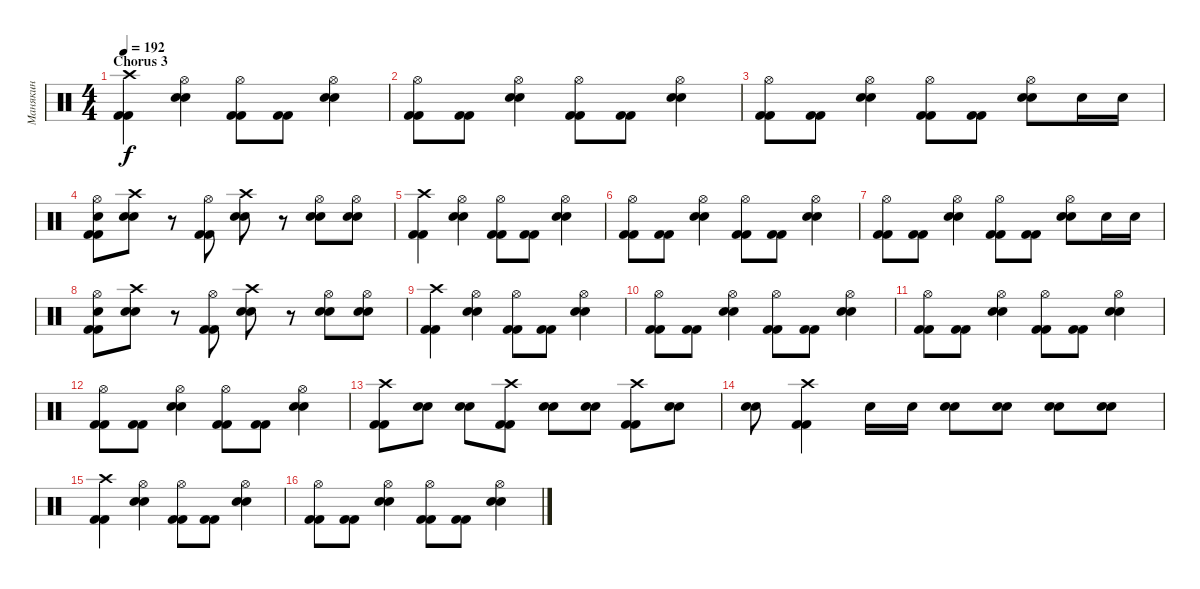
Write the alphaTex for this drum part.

\track ("Манякин" "Манякин") {instrument percussion}
\staff {score}
\articulation defaults
\ts (4 4)
\section ("" "Chorus 3")
\tempo 192
\clef neutral
\ks c
("Crash high (hit)" "Kick (hit) 2" "Kick (hit) 2").4{dy f} ("Hi-Hat (open)" "Electric Snare (hit)" "Electric Snare (hit)").4 ("Hi-Hat (open)" "Kick (hit) 2" "Kick (hit) 2").8 ("Kick (hit) 2" "Kick (hit) 2").8 ("Hi-Hat (open)" "Electric Snare (hit)" "Electric Snare (hit)").4 |
("Hi-Hat (open)" "Kick (hit) 2" "Kick (hit) 2").8 ("Kick (hit) 2" "Kick (hit) 2").8 ("Hi-Hat (open)" "Electric Snare (hit)" "Electric Snare (hit)").4 ("Hi-Hat (open)" "Kick (hit) 2" "Kick (hit) 2").8 ("Kick (hit) 2" "Kick (hit) 2").8 ("Hi-Hat (open)" "Electric Snare (hit)" "Electric Snare (hit)").4 |
("Hi-Hat (open)" "Kick (hit) 2" "Kick (hit) 2").8 ("Kick (hit) 2" "Kick (hit) 2").8 ("Hi-Hat (open)" "Electric Snare (hit)" "Electric Snare (hit)").4 ("Hi-Hat (open)" "Kick (hit) 2" "Kick (hit) 2").8 ("Kick (hit) 2" "Kick (hit) 2").8 ("Hi-Hat (open)" "Electric Snare (hit)" "Electric Snare (hit)").8 "Electric Snare (hit)".16 "Electric Snare (hit)".16 |
("Hi-Hat (open)" "Electric Snare (hit)" "Kick (hit) 2" "Kick (hit) 2").8 ("Crash high (hit)" "Electric Snare (hit)" "Electric Snare (hit)").8 r.8 ("Hi-Hat (open)" "Kick (hit) 2" "Kick (hit) 2").8 ("Crash high (hit)" "Electric Snare (hit)" "Electric Snare (hit)").8 r.8 ("Hi-Hat (open)" "Electric Snare (hit)" "Electric Snare (hit)").8 ("Hi-Hat (open)" "Electric Snare (hit)" "Electric Snare (hit)").8 |
("Crash high (hit)" "Kick (hit) 2" "Kick (hit) 2").4 ("Hi-Hat (open)" "Electric Snare (hit)" "Electric Snare (hit)").4 ("Hi-Hat (open)" "Kick (hit) 2" "Kick (hit) 2").8 ("Kick (hit) 2" "Kick (hit) 2").8 ("Hi-Hat (open)" "Electric Snare (hit)" "Electric Snare (hit)").4 |
("Hi-Hat (open)" "Kick (hit) 2" "Kick (hit) 2").8 ("Kick (hit) 2" "Kick (hit) 2").8 ("Hi-Hat (open)" "Electric Snare (hit)" "Electric Snare (hit)").4 ("Hi-Hat (open)" "Kick (hit) 2" "Kick (hit) 2").8 ("Kick (hit) 2" "Kick (hit) 2").8 ("Hi-Hat (open)" "Electric Snare (hit)" "Electric Snare (hit)").4 |
("Hi-Hat (open)" "Kick (hit) 2" "Kick (hit) 2").8 ("Kick (hit) 2" "Kick (hit) 2").8 ("Hi-Hat (open)" "Electric Snare (hit)" "Electric Snare (hit)").4 ("Hi-Hat (open)" "Kick (hit) 2" "Kick (hit) 2").8 ("Kick (hit) 2" "Kick (hit) 2").8 ("Hi-Hat (open)" "Electric Snare (hit)" "Electric Snare (hit)").8 "Electric Snare (hit)".16 "Electric Snare (hit)".16 |
("Hi-Hat (open)" "Electric Snare (hit)" "Kick (hit) 2" "Kick (hit) 2").8 ("Crash high (hit)" "Electric Snare (hit)" "Electric Snare (hit)").8 r.8 ("Hi-Hat (open)" "Kick (hit) 2" "Kick (hit) 2").8 ("Crash high (hit)" "Electric Snare (hit)" "Electric Snare (hit)").8 r.8 ("Hi-Hat (open)" "Electric Snare (hit)" "Electric Snare (hit)").8 ("Hi-Hat (open)" "Electric Snare (hit)" "Electric Snare (hit)").8 |
("Crash high (hit)" "Kick (hit) 2" "Kick (hit) 2").4 ("Hi-Hat (open)" "Electric Snare (hit)" "Electric Snare (hit)").4 ("Hi-Hat (open)" "Kick (hit) 2" "Kick (hit) 2").8 ("Kick (hit) 2" "Kick (hit) 2").8 ("Hi-Hat (open)" "Electric Snare (hit)" "Electric Snare (hit)").4 |
("Hi-Hat (open)" "Kick (hit) 2" "Kick (hit) 2").8 ("Kick (hit) 2" "Kick (hit) 2").8 ("Hi-Hat (open)" "Electric Snare (hit)" "Electric Snare (hit)").4 ("Hi-Hat (open)" "Kick (hit) 2" "Kick (hit) 2").8 ("Kick (hit) 2" "Kick (hit) 2").8 ("Hi-Hat (open)" "Electric Snare (hit)" "Electric Snare (hit)").4 |
("Hi-Hat (open)" "Kick (hit) 2" "Kick (hit) 2").8 ("Kick (hit) 2" "Kick (hit) 2").8 ("Hi-Hat (open)" "Electric Snare (hit)" "Electric Snare (hit)").4 ("Hi-Hat (open)" "Kick (hit) 2" "Kick (hit) 2").8 ("Kick (hit) 2" "Kick (hit) 2").8 ("Hi-Hat (open)" "Electric Snare (hit)" "Electric Snare (hit)").4 |
("Hi-Hat (open)" "Kick (hit) 2" "Kick (hit) 2").8 ("Kick (hit) 2" "Kick (hit) 2").8 ("Hi-Hat (open)" "Electric Snare (hit)" "Electric Snare (hit)").4 ("Hi-Hat (open)" "Kick (hit) 2" "Kick (hit) 2").8 ("Kick (hit) 2" "Kick (hit) 2").8 ("Hi-Hat (open)" "Electric Snare (hit)" "Electric Snare (hit)").4 |
("Crash high (hit)" "Kick (hit) 2" "Kick (hit) 2").8 ("Electric Snare (hit)" "Electric Snare (hit)").8 ("Electric Snare (hit)" "Electric Snare (hit)").8 ("Crash high (hit)" "Kick (hit) 2" "Kick (hit) 2").8 ("Electric Snare (hit)" "Electric Snare (hit)").8 ("Electric Snare (hit)" "Electric Snare (hit)").8 ("Crash high (hit)" "Kick (hit) 2" "Kick (hit) 2").8 ("Electric Snare (hit)" "Electric Snare (hit)").8 |
("Electric Snare (hit)" "Electric Snare (hit)").8 ("Crash high (hit)" "Kick (hit) 2" "Kick (hit) 2").4 "Electric Snare (hit)".16 "Electric Snare (hit)".16 ("Electric Snare (hit)" "Electric Snare (hit)").8 ("Electric Snare (hit)" "Electric Snare (hit)").8 ("Electric Snare (hit)" "Electric Snare (hit)").8 ("Electric Snare (hit)" "Electric Snare (hit)").8 |
("Crash high (hit)" "Kick (hit) 2" "Kick (hit) 2").4 ("Hi-Hat (open)" "Electric Snare (hit)" "Electric Snare (hit)").4 ("Hi-Hat (open)" "Kick (hit) 2" "Kick (hit) 2").8 ("Kick (hit) 2" "Kick (hit) 2").8 ("Hi-Hat (open)" "Electric Snare (hit)" "Electric Snare (hit)").4 |
("Hi-Hat (open)" "Kick (hit) 2" "Kick (hit) 2").8 ("Kick (hit) 2" "Kick (hit) 2").8 ("Hi-Hat (open)" "Electric Snare (hit)" "Electric Snare (hit)").4 ("Hi-Hat (open)" "Kick (hit) 2" "Kick (hit) 2").8 ("Kick (hit) 2" "Kick (hit) 2").8 ("Hi-Hat (open)" "Electric Snare (hit)" "Electric Snare (hit)").4
